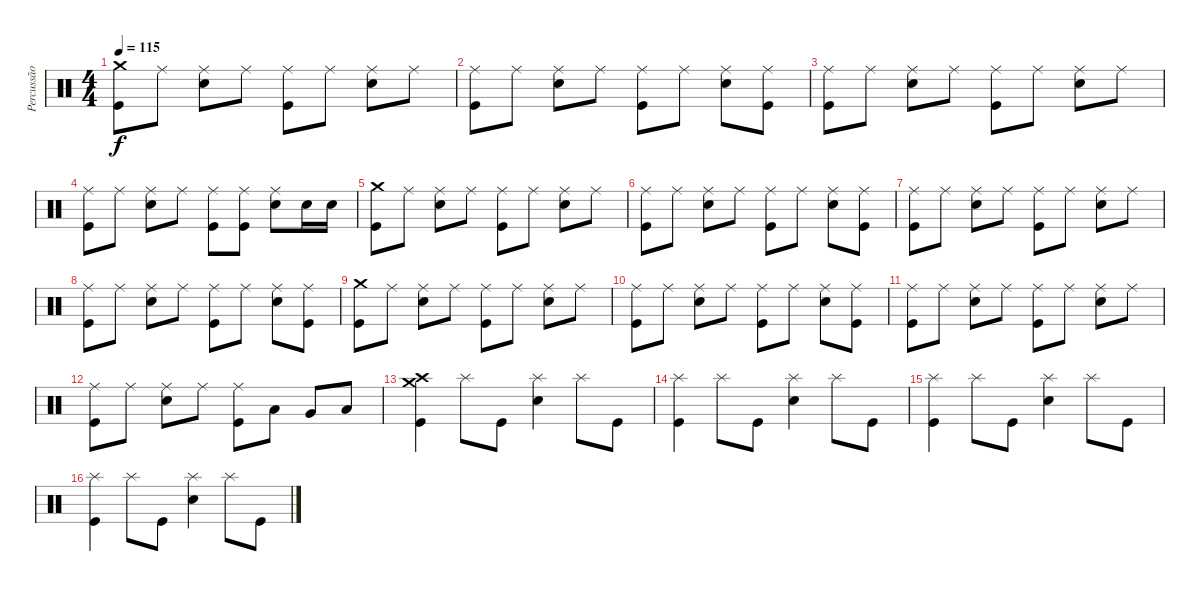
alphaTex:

\track ("Percussão" "Percussão") {instrument percussion}
\staff {score}
\articulation defaults
\ts (4 4)
\tempo 115
\clef neutral
\ks c
("Crash medium (hit)" "Kick (hit)").8{dy f} "Ride (middle)".8 ("Ride (middle)" "Electric Snare (hit)").8 "Ride (middle)".8 ("Ride (middle)" "Kick (hit)").8 "Ride (middle)".8 ("Ride (middle)" "Electric Snare (hit)").8 "Ride (middle)".8 |
("Ride (middle)" "Kick (hit)").8 "Ride (middle)".8 ("Ride (middle)" "Electric Snare (hit)").8 "Ride (middle)".8 ("Ride (middle)" "Kick (hit)").8 "Ride (middle)".8 ("Ride (middle)" "Electric Snare (hit)").8 ("Ride (middle)" "Kick (hit)").8 |
("Ride (middle)" "Kick (hit)").8 "Ride (middle)".8 ("Ride (middle)" "Electric Snare (hit)").8 "Ride (middle)".8 ("Ride (middle)" "Kick (hit)").8 "Ride (middle)".8 ("Ride (middle)" "Electric Snare (hit)").8 "Ride (middle)".8 |
("Ride (middle)" "Kick (hit)").8 "Ride (middle)".8 ("Ride (middle)" "Electric Snare (hit)").8 "Ride (middle)".8 ("Ride (middle)" "Kick (hit)").8 ("Ride (middle)" "Kick (hit)").8 ("Ride (middle)" "Electric Snare (hit)").8 "Electric Snare (hit)".16 "Electric Snare (hit)".16 |
("Crash medium (hit)" "Kick (hit)").8 "Ride (middle)".8 ("Ride (middle)" "Electric Snare (hit)").8 "Ride (middle)".8 ("Ride (middle)" "Kick (hit)").8 "Ride (middle)".8 ("Ride (middle)" "Electric Snare (hit)").8 "Ride (middle)".8 |
("Ride (middle)" "Kick (hit)").8 "Ride (middle)".8 ("Ride (middle)" "Electric Snare (hit)").8 "Ride (middle)".8 ("Ride (middle)" "Kick (hit)").8 "Ride (middle)".8 ("Ride (middle)" "Electric Snare (hit)").8 ("Ride (middle)" "Kick (hit)").8 |
("Ride (middle)" "Kick (hit)").8 "Ride (middle)".8 ("Ride (middle)" "Electric Snare (hit)").8 "Ride (middle)".8 ("Ride (middle)" "Kick (hit)").8 "Ride (middle)".8 ("Ride (middle)" "Electric Snare (hit)").8 "Ride (middle)".8 |
("Ride (middle)" "Kick (hit)").8 "Ride (middle)".8 ("Ride (middle)" "Electric Snare (hit)").8 "Ride (middle)".8 ("Ride (middle)" "Kick (hit)").8 "Ride (middle)".8 ("Ride (middle)" "Electric Snare (hit)").8 ("Ride (middle)" "Kick (hit)").8 |
("Crash medium (hit)" "Kick (hit)").8 "Ride (middle)".8 ("Ride (middle)" "Electric Snare (hit)").8 "Ride (middle)".8 ("Ride (middle)" "Kick (hit)").8 "Ride (middle)".8 ("Ride (middle)" "Electric Snare (hit)").8 "Ride (middle)".8 |
("Ride (middle)" "Kick (hit)").8 "Ride (middle)".8 ("Ride (middle)" "Electric Snare (hit)").8 "Ride (middle)".8 ("Ride (middle)" "Kick (hit)").8 "Ride (middle)".8 ("Ride (middle)" "Electric Snare (hit)").8 ("Ride (middle)" "Kick (hit)").8 |
("Ride (middle)" "Kick (hit)").8 "Ride (middle)".8 ("Ride (middle)" "Electric Snare (hit)").8 "Ride (middle)".8 ("Ride (middle)" "Kick (hit)").8 "Ride (middle)".8 ("Ride (middle)" "Electric Snare (hit)").8 "Ride (middle)".8 |
("Ride (middle)" "Kick (hit)").8 "Ride (middle)".8 ("Ride (middle)" "Electric Snare (hit)").8 "Ride (middle)".8 ("Ride (middle)" "Kick (hit)").8 "Low Tom (hit)".8 "Very Low Tom (hit)".8 "Low Floor Tom (hit)".8 |
("Crash medium (hit)" "Crash high (hit)" "Kick (hit)").4 "Splash (hit)".8 "Kick (hit)".8 ("Splash (hit)" "Electric Snare (hit)").4 "Splash (hit)".8 "Kick (hit)".8 |
("Splash (hit)" "Kick (hit)").4 "Splash (hit)".8 "Kick (hit)".8 ("Splash (hit)" "Electric Snare (hit)").4 "Splash (hit)".8 "Kick (hit)".8 |
("Splash (hit)" "Kick (hit)").4 "Splash (hit)".8 "Kick (hit)".8 ("Splash (hit)" "Electric Snare (hit)").4 "Splash (hit)".8 "Kick (hit)".8 |
("Splash (hit)" "Kick (hit)").4 "Splash (hit)".8 "Kick (hit)".8 ("Splash (hit)" "Electric Snare (hit)").4 "Splash (hit)".8 "Kick (hit)".8
